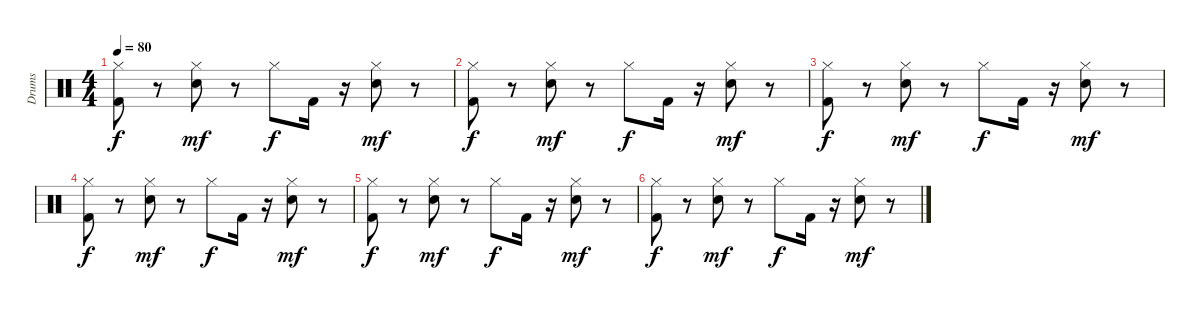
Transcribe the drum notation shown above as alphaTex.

\track ("Drums" "Drums") {instrument percussion}
\staff {score}
\articulation defaults
\ts (4 4)
\tempo 80
\clef neutral
\ks c
("Hi-Hat (closed)" "Kick (hit) 2").8{dy f} r.8 ("Hi-Hat (closed)" "Electric Snare (hit)").8{dy mf} r.8 "Hi-Hat (closed)".8{dy f} "Kick (hit) 2".16 r.16 ("Hi-Hat (closed)" "Electric Snare (hit)").8{dy mf} r.8 |
("Kick (hit) 2" "Hi-Hat (closed)").8{dy f} r.8 ("Hi-Hat (closed)" "Electric Snare (hit)").8{dy mf} r.8 "Hi-Hat (closed)".8{dy f} "Kick (hit) 2".16 r.16 ("Hi-Hat (closed)" "Electric Snare (hit)").8{dy mf} r.8 |
("Hi-Hat (closed)" "Kick (hit) 2").8{dy f} r.8 ("Hi-Hat (closed)" "Electric Snare (hit)").8{dy mf} r.8 "Hi-Hat (closed)".8{dy f} "Kick (hit) 2".16 r.16 ("Hi-Hat (closed)" "Electric Snare (hit)").8{dy mf} r.8 |
("Kick (hit) 2" "Hi-Hat (closed)").8{dy f} r.8 ("Hi-Hat (closed)" "Electric Snare (hit)").8{dy mf} r.8 "Hi-Hat (closed)".8{dy f} "Kick (hit) 2".16 r.16 ("Hi-Hat (closed)" "Electric Snare (hit)").8{dy mf} r.8 |
("Hi-Hat (closed)" "Kick (hit) 2").8{dy f} r.8 ("Hi-Hat (closed)" "Electric Snare (hit)").8{dy mf} r.8 "Hi-Hat (closed)".8{dy f} "Kick (hit) 2".16 r.16 ("Hi-Hat (closed)" "Electric Snare (hit)").8{dy mf} r.8 |
("Kick (hit) 2" "Hi-Hat (closed)").8{dy f} r.8 ("Hi-Hat (closed)" "Electric Snare (hit)").8{dy mf} r.8 "Hi-Hat (closed)".8{dy f} "Kick (hit) 2".16 r.16 ("Hi-Hat (closed)" "Electric Snare (hit)").8{dy mf} r.8
